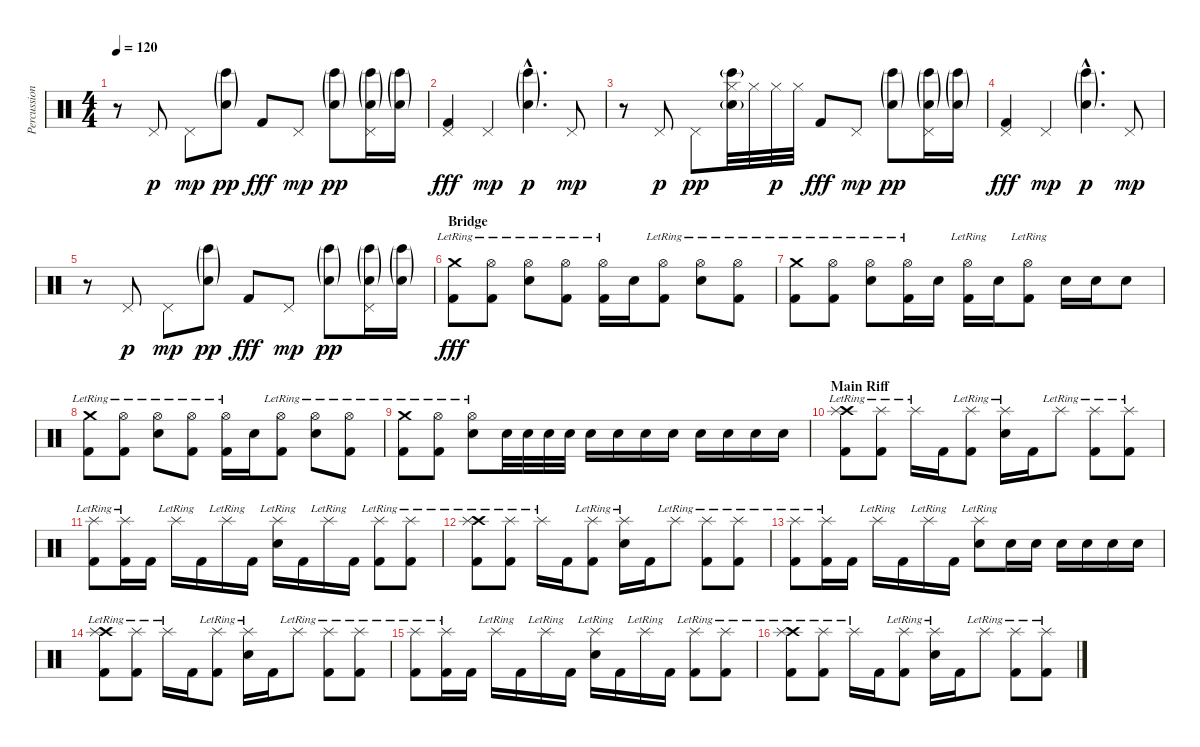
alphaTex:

\track ("Percussions" "Percussion") {instrument percussion}
\staff {score}
\articulation defaults
\ts (4 4)
\tempo 120
\clef neutral
\ks c
r.8{dy mp} "Pedal Hi-Hat (hit)".8{dy p} "Pedal Hi-Hat (hit)".8{dy mp} ("Bongo High (hit)"{g} "Electric Snare (hit)"{g}).8{dy pp} "Kick (hit) 2".8{dy fff} "Pedal Hi-Hat (hit)".8{dy mp} ("Bongo High (hit)"{g} "Electric Snare (hit)"{g}).8{dy pp} ("Pedal Hi-Hat (hit)" "Bongo High (hit)"{g} "Electric Snare (hit)"{g}).16 ("Bongo High (hit)"{g} "Electric Snare (hit)"{g}).16 |
("Pedal Hi-Hat (hit)" "Kick (hit) 2").4{dy fff} "Pedal Hi-Hat (hit)".4{dy mp} ("Bongo High (hit)"{g hac} "Electric Snare (hit)"{g hac}).4{d dy p} "Pedal Hi-Hat (hit)".8{dy mp} |
r.8 "Pedal Hi-Hat (hit)".8{dy p} "Pedal Hi-Hat (hit)".8{dy pp} ("Hi-Hat (closed)" "Bongo High (hit)"{g} "Electric Snare (hit)"{g}).32 "Hi-Hat (closed)".32 "Hi-Hat (closed)".32{dy p} "Hi-Hat (closed)".32 "Kick (hit) 2".8{dy fff} "Pedal Hi-Hat (hit)".8{dy mp} ("Bongo High (hit)"{g} "Electric Snare (hit)"{g}).8{dy pp} ("Pedal Hi-Hat (hit)" "Bongo High (hit)"{g} "Electric Snare (hit)"{g}).16 ("Bongo High (hit)"{g} "Electric Snare (hit)"{g}).16 |
("Pedal Hi-Hat (hit)" "Kick (hit) 2").4{dy fff} "Pedal Hi-Hat (hit)".4{dy mp} ("Bongo High (hit)"{g hac} "Electric Snare (hit)"{g hac}).4{d dy p} "Pedal Hi-Hat (hit)".8{dy mp} |
r.8 "Pedal Hi-Hat (hit)".8{dy p} "Pedal Hi-Hat (hit)".8{dy mp} ("Bongo High (hit)"{g} "Electric Snare (hit)"{g}).8{dy pp} "Kick (hit) 2".8{dy fff} "Pedal Hi-Hat (hit)".8{dy mp} ("Bongo High (hit)"{g} "Electric Snare (hit)"{g}).8{dy pp} ("Pedal Hi-Hat (hit)" "Bongo High (hit)"{g} "Electric Snare (hit)"{g}).16 ("Bongo High (hit)"{g} "Electric Snare (hit)"{g}).16 |
\section ("" "Bridge")
("Crash medium (hit)"{lr} "Kick (hit) 2").8{dy fff} ("Hi-Hat (open)"{lr} "Kick (hit) 2").8 ("Hi-Hat (open)"{lr} "Electric Snare (hit)").8 ("Hi-Hat (open)"{lr} "Kick (hit) 2").8 ("Hi-Hat (open)"{lr} "Kick (hit) 2").16 "Electric Snare (hit)".16 ("Hi-Hat (open)"{lr} "Kick (hit) 2").8 ("Hi-Hat (open)"{lr} "Electric Snare (hit)").8 ("Hi-Hat (open)"{lr} "Kick (hit) 2").8 |
("Crash medium (hit)"{lr} "Kick (hit) 2").8 ("Hi-Hat (open)"{lr} "Kick (hit) 2").8 ("Hi-Hat (open)"{lr} "Electric Snare (hit)").8 ("Hi-Hat (open)"{lr} "Kick (hit) 2").16 "Electric Snare (hit)".16 ("Hi-Hat (open)"{lr} "Kick (hit) 2").16 "Electric Snare (hit)".16 ("Hi-Hat (open)"{lr} "Kick (hit) 2").8 "Electric Snare (hit)".16 "Electric Snare (hit)".16 "Electric Snare (hit)".8 |
("Crash medium (hit)"{lr} "Kick (hit) 2").8 ("Hi-Hat (open)"{lr} "Kick (hit) 2").8 ("Hi-Hat (open)"{lr} "Electric Snare (hit)").8 ("Hi-Hat (open)"{lr} "Kick (hit) 2").8 ("Hi-Hat (open)"{lr} "Kick (hit) 2").16 "Electric Snare (hit)".16 ("Hi-Hat (open)"{lr} "Kick (hit) 2").8 ("Hi-Hat (open)"{lr} "Electric Snare (hit)").8 ("Hi-Hat (open)"{lr} "Kick (hit) 2").8 |
("Crash medium (hit)"{lr} "Kick (hit) 2").8 ("Hi-Hat (open)"{lr} "Kick (hit) 2").8 ("Hi-Hat (open)"{lr} "Electric Snare (hit)").8 "Electric Snare (hit)".32 "Electric Snare (hit)".32 "Electric Snare (hit)".32 "Electric Snare (hit)".32 "Electric Snare (hit)".16 "Electric Snare (hit)".16 "Electric Snare (hit)".16 "Electric Snare (hit)".16 "Electric Snare (hit)".16 "Electric Snare (hit)".16 "Electric Snare (hit)".16 "Electric Snare (hit)".16 |
\section ("" "Main Riff")
("Crash high (hit)"{lr} "Splash (hit)"{lr} "Kick (hit) 2").8 ("Splash (hit)"{lr} "Kick (hit) 2").8 "Splash (hit)"{lr}.16 "Kick (hit) 2".16 ("Splash (hit)"{lr} "Kick (hit) 2").8 ("Splash (hit)"{lr} "Electric Snare (hit)").16 "Kick (hit) 2".16 "Splash (hit)"{lr}.8 ("Splash (hit)"{lr} "Kick (hit) 2").8 ("Splash (hit)"{lr} "Kick (hit) 2").8 |
("Splash (hit)"{lr} "Kick (hit) 2").8 ("Splash (hit)"{lr} "Kick (hit) 2").16 "Kick (hit) 2".16 "Splash (hit)"{lr}.16 "Kick (hit) 2".16 "Splash (hit)"{lr}.16 "Kick (hit) 2".16 ("Splash (hit)"{lr} "Electric Snare (hit)").16 "Kick (hit) 2".16 "Splash (hit)"{lr}.16 "Kick (hit) 2".16 ("Splash (hit)"{lr} "Kick (hit) 2").8 ("Splash (hit)"{lr} "Kick (hit) 2").8 |
("Crash high (hit)"{lr} "Splash (hit)"{lr} "Kick (hit) 2").8 ("Splash (hit)"{lr} "Kick (hit) 2").8 "Splash (hit)"{lr}.16 "Kick (hit) 2".16 ("Splash (hit)"{lr} "Kick (hit) 2").8 ("Splash (hit)"{lr} "Electric Snare (hit)").16 "Kick (hit) 2".16 "Splash (hit)"{lr}.8 ("Splash (hit)"{lr} "Kick (hit) 2").8 ("Splash (hit)"{lr} "Kick (hit) 2").8 |
("Splash (hit)"{lr} "Kick (hit) 2").8 ("Splash (hit)"{lr} "Kick (hit) 2").16 "Kick (hit) 2".16 "Splash (hit)"{lr}.16 "Kick (hit) 2".16 "Splash (hit)"{lr}.16 "Kick (hit) 2".16 ("Splash (hit)"{lr} "Electric Snare (hit)").8 "Electric Snare (hit)".16 "Electric Snare (hit)".16 "Electric Snare (hit)".16 "Electric Snare (hit)".16 "Electric Snare (hit)".16 "Electric Snare (hit)".16 |
("Crash high (hit)"{lr} "Splash (hit)"{lr} "Kick (hit) 2").8 ("Splash (hit)"{lr} "Kick (hit) 2").8 "Splash (hit)"{lr}.16 "Kick (hit) 2".16 ("Splash (hit)"{lr} "Kick (hit) 2").8 ("Splash (hit)"{lr} "Electric Snare (hit)").16 "Kick (hit) 2".16 "Splash (hit)"{lr}.8 ("Splash (hit)"{lr} "Kick (hit) 2").8 ("Splash (hit)"{lr} "Kick (hit) 2").8 |
("Splash (hit)"{lr} "Kick (hit) 2").8 ("Splash (hit)"{lr} "Kick (hit) 2").16 "Kick (hit) 2".16 "Splash (hit)"{lr}.16 "Kick (hit) 2".16 "Splash (hit)"{lr}.16 "Kick (hit) 2".16 ("Splash (hit)"{lr} "Electric Snare (hit)").16 "Kick (hit) 2".16 "Splash (hit)"{lr}.16 "Kick (hit) 2".16 ("Splash (hit)"{lr} "Kick (hit) 2").8 ("Splash (hit)"{lr} "Kick (hit) 2").8 |
("Crash high (hit)"{lr} "Splash (hit)"{lr} "Kick (hit) 2").8 ("Splash (hit)"{lr} "Kick (hit) 2").8 "Splash (hit)"{lr}.16 "Kick (hit) 2".16 ("Splash (hit)"{lr} "Kick (hit) 2").8 ("Splash (hit)"{lr} "Electric Snare (hit)").16 "Kick (hit) 2".16 "Splash (hit)"{lr}.8 ("Splash (hit)"{lr} "Kick (hit) 2").8 ("Splash (hit)"{lr} "Kick (hit) 2").8
